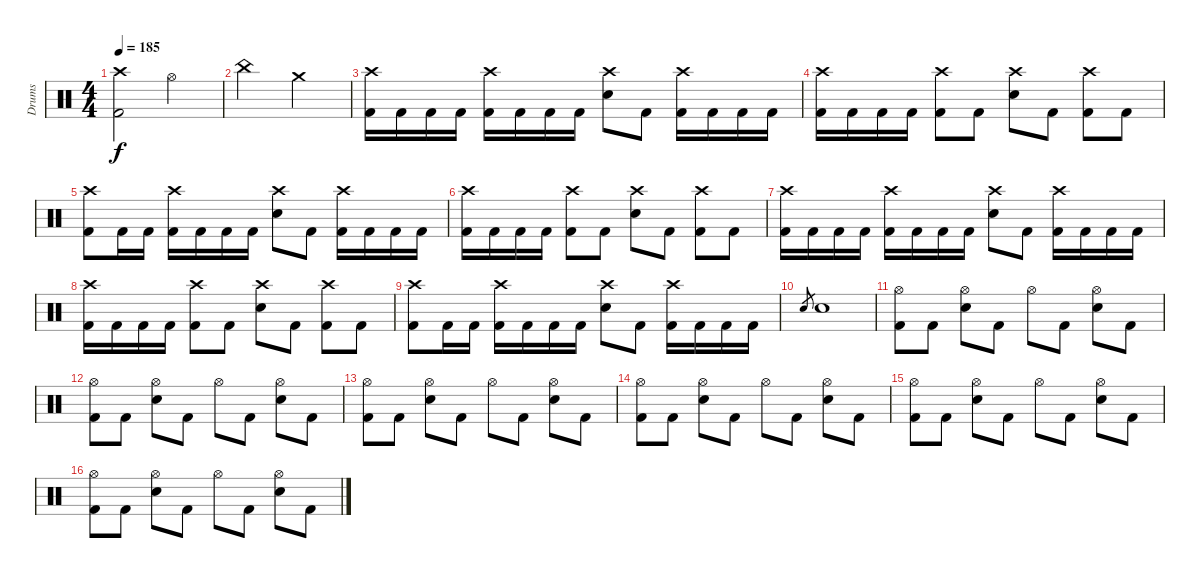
\track ("Drums" "Drums") {instrument percussion}
\staff {score}
\articulation defaults
\ts (4 4)
\tempo 185
\clef neutral
\ks c
("Crash high (hit)" "Kick (hit) 2").2{dy f} "Hi-Hat (open)".2 |
"China (hit)".2 "Crash medium (hit)".2 |
("Crash high (hit)" "Kick (hit) 2").16 "Kick (hit) 2".16 "Kick (hit) 2".16 "Kick (hit) 2".16 ("Crash high (hit)" "Kick (hit) 2").16 "Kick (hit) 2".16 "Kick (hit) 2".16 "Kick (hit) 2".16 ("Crash high (hit)" "Snare (hit) 2").8 "Kick (hit) 2".8 ("Crash high (hit)" "Kick (hit) 2").16 "Kick (hit) 2".16 "Kick (hit) 2".16 "Kick (hit) 2".16 |
("Crash high (hit)" "Kick (hit) 2").16 "Kick (hit) 2".16 "Kick (hit) 2".16 "Kick (hit) 2".16 ("Crash high (hit)" "Kick (hit) 2").8 "Kick (hit) 2".8 ("Crash high (hit)" "Snare (hit) 2").8 "Kick (hit) 2".8 ("Crash high (hit)" "Kick (hit) 2").8 "Kick (hit) 2".8 |
("Crash high (hit)" "Kick (hit) 2").8 "Kick (hit) 2".16 "Kick (hit) 2".16 ("Crash high (hit)" "Kick (hit) 2").16 "Kick (hit) 2".16 "Kick (hit) 2".16 "Kick (hit) 2".16 ("Crash high (hit)" "Snare (hit) 2").8 "Kick (hit) 2".8 ("Crash high (hit)" "Kick (hit) 2").16 "Kick (hit) 2".16 "Kick (hit) 2".16 "Kick (hit) 2".16 |
("Crash high (hit)" "Kick (hit) 2").16 "Kick (hit) 2".16 "Kick (hit) 2".16 "Kick (hit) 2".16 ("Crash high (hit)" "Kick (hit) 2").8 "Kick (hit) 2".8 ("Crash high (hit)" "Snare (hit) 2").8 "Kick (hit) 2".8 ("Crash high (hit)" "Kick (hit) 2").8 "Kick (hit) 2".8 |
("Crash high (hit)" "Kick (hit) 2").16 "Kick (hit) 2".16 "Kick (hit) 2".16 "Kick (hit) 2".16 ("Crash high (hit)" "Kick (hit) 2").16 "Kick (hit) 2".16 "Kick (hit) 2".16 "Kick (hit) 2".16 ("Crash high (hit)" "Snare (hit) 2").8 "Kick (hit) 2".8 ("Crash high (hit)" "Kick (hit) 2").16 "Kick (hit) 2".16 "Kick (hit) 2".16 "Kick (hit) 2".16 |
("Crash high (hit)" "Kick (hit) 2").16 "Kick (hit) 2".16 "Kick (hit) 2".16 "Kick (hit) 2".16 ("Crash high (hit)" "Kick (hit) 2").8 "Kick (hit) 2".8 ("Crash high (hit)" "Snare (hit) 2").8 "Kick (hit) 2".8 ("Crash high (hit)" "Kick (hit) 2").8 "Kick (hit) 2".8 |
("Crash high (hit)" "Kick (hit) 2").8 "Kick (hit) 2".16 "Kick (hit) 2".16 ("Crash high (hit)" "Kick (hit) 2").16 "Kick (hit) 2".16 "Kick (hit) 2".16 "Kick (hit) 2".16 ("Crash high (hit)" "Snare (hit) 2").8 "Kick (hit) 2".8 ("Crash high (hit)" "Kick (hit) 2").16 "Kick (hit) 2".16 "Kick (hit) 2".16 "Kick (hit) 2".16 |
"Snare (hit) 2".8{gr} "Snare (hit) 2".1 |
("Hi-Hat (open)" "Kick (hit) 2").8 "Kick (hit) 2".8 ("Hi-Hat (open)" "Snare (hit) 2").8 "Kick (hit) 2".8 "Hi-Hat (open)".8 "Kick (hit) 2".8 ("Hi-Hat (open)" "Snare (hit) 2").8 "Kick (hit) 2".8 |
("Hi-Hat (open)" "Kick (hit) 2").8 "Kick (hit) 2".8 ("Hi-Hat (open)" "Snare (hit) 2").8 "Kick (hit) 2".8 "Hi-Hat (open)".8 "Kick (hit) 2".8 ("Hi-Hat (open)" "Snare (hit) 2").8 "Kick (hit) 2".8 |
("Hi-Hat (open)" "Kick (hit) 2").8 "Kick (hit) 2".8 ("Hi-Hat (open)" "Snare (hit) 2").8 "Kick (hit) 2".8 "Hi-Hat (open)".8 "Kick (hit) 2".8 ("Hi-Hat (open)" "Snare (hit) 2").8 "Kick (hit) 2".8 |
("Hi-Hat (open)" "Kick (hit) 2").8 "Kick (hit) 2".8 ("Hi-Hat (open)" "Snare (hit) 2").8 "Kick (hit) 2".8 "Hi-Hat (open)".8 "Kick (hit) 2".8 ("Hi-Hat (open)" "Snare (hit) 2").8 "Kick (hit) 2".8 |
("Hi-Hat (open)" "Kick (hit) 2").8 "Kick (hit) 2".8 ("Hi-Hat (open)" "Snare (hit) 2").8 "Kick (hit) 2".8 "Hi-Hat (open)".8 "Kick (hit) 2".8 ("Hi-Hat (open)" "Snare (hit) 2").8 "Kick (hit) 2".8 |
("Hi-Hat (open)" "Kick (hit) 2").8 "Kick (hit) 2".8 ("Hi-Hat (open)" "Snare (hit) 2").8 "Kick (hit) 2".8 "Hi-Hat (open)".8 "Kick (hit) 2".8 ("Hi-Hat (open)" "Snare (hit) 2").8 "Kick (hit) 2".8
